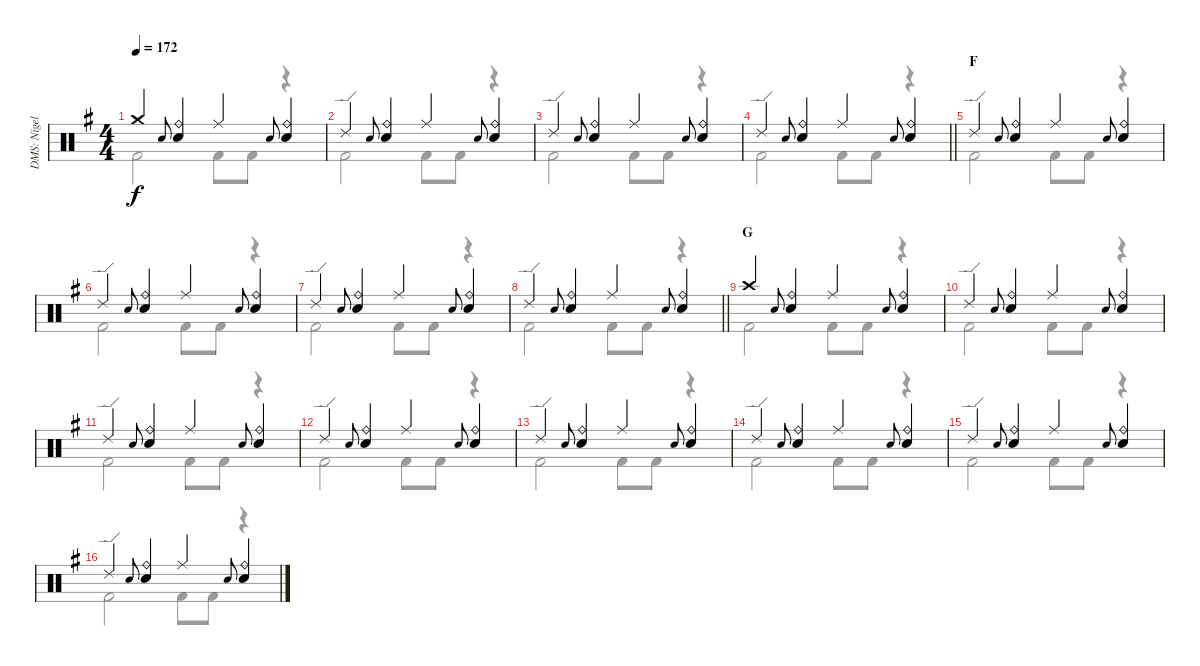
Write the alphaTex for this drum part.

\track ("DMS: Nigel Olsson" "DMS: Nigel") {instrument percussion}
\staff {score}
\articulation defaults
\voice
\ts (4 4)
\tempo 172
\clef neutral
\ks g "Crash medium (hit)".4{dy f} "Snare (hit) 2".8{gr onbeat}
("Ride (bell)" "Electric Snare (hit)").4 "Ride (middle)".4 "Snare (hit) 2".8{gr onbeat} ("Ride (bell)" "Electric Snare (hit)").4 |
"Ride (edge) 2".4 "Snare (hit) 2".8{gr onbeat} ("Ride (bell)" "Electric Snare (hit)").4 "Ride (middle)".4 "Snare (hit) 2".8{gr onbeat} ("Ride (bell)" "Electric Snare (hit)").4 |
"Ride (edge) 2".4 "Snare (hit) 2".8{gr onbeat} ("Ride (bell)" "Electric Snare (hit)").4 "Ride (middle)".4 "Snare (hit) 2".8{gr onbeat} ("Ride (bell)" "Electric Snare (hit)").4 |
\barLineRight lightlight "Ride (edge) 2".4 "Snare (hit) 2".8{gr onbeat}
("Ride (bell)" "Electric Snare (hit)").4 "Ride (middle)".4 "Snare (hit) 2".8{gr onbeat} ("Ride (bell)" "Electric Snare (hit)").4 |
\section ("" "F")
"Ride (edge) 2".4 "Snare (hit) 2".8{gr onbeat} ("Ride (bell)" "Electric Snare (hit)").4 "Ride (middle)".4 "Snare (hit) 2".8{gr onbeat} ("Ride (bell)" "Electric Snare (hit)").4 |
"Ride (edge) 2".4 "Snare (hit) 2".8{gr onbeat} ("Ride (bell)" "Electric Snare (hit)").4 "Ride (middle)".4 "Snare (hit) 2".8{gr onbeat} ("Ride (bell)" "Electric Snare (hit)").4 |
"Ride (edge) 2".4 "Snare (hit) 2".8{gr onbeat} ("Ride (bell)" "Electric Snare (hit)").4 "Ride (middle)".4 "Snare (hit) 2".8{gr onbeat} ("Ride (bell)" "Electric Snare (hit)").4 |
\barLineRight lightlight "Ride (edge) 2".4 "Snare (hit) 2".8{gr onbeat}
("Ride (bell)" "Electric Snare (hit)").4 "Ride (middle)".4 "Snare (hit) 2".8{gr onbeat} ("Ride (bell)" "Electric Snare (hit)").4 |
\section ("" "G")
"Crash high (hit)".4 "Snare (hit) 2".8{gr onbeat} ("Ride (bell)" "Electric Snare (hit)").4 "Ride (middle)".4 "Snare (hit) 2".8{gr onbeat} ("Ride (bell)" "Electric Snare (hit)").4 |
"Ride (edge) 2".4 "Snare (hit) 2".8{gr onbeat} ("Ride (bell)" "Electric Snare (hit)").4 "Ride (middle)".4 "Snare (hit) 2".8{gr onbeat} ("Ride (bell)" "Electric Snare (hit)").4 |
"Ride (edge) 2".4 "Snare (hit) 2".8{gr onbeat} ("Ride (bell)" "Electric Snare (hit)").4 "Ride (middle)".4 "Snare (hit) 2".8{gr onbeat} ("Ride (bell)" "Electric Snare (hit)").4 |
"Ride (edge) 2".4 "Snare (hit) 2".8{gr onbeat} ("Ride (bell)" "Electric Snare (hit)").4 "Ride (middle)".4 "Snare (hit) 2".8{gr onbeat} ("Ride (bell)" "Electric Snare (hit)").4 |
"Ride (edge) 2".4 "Snare (hit) 2".8{gr onbeat} ("Ride (bell)" "Electric Snare (hit)").4 "Ride (middle)".4 "Snare (hit) 2".8{gr onbeat} ("Ride (bell)" "Electric Snare (hit)").4 |
"Ride (edge) 2".4 "Snare (hit) 2".8{gr onbeat} ("Ride (bell)" "Electric Snare (hit)").4 "Ride (middle)".4 "Snare (hit) 2".8{gr onbeat} ("Ride (bell)" "Electric Snare (hit)").4 |
"Ride (edge) 2".4 "Snare (hit) 2".8{gr onbeat} ("Ride (bell)" "Electric Snare (hit)").4 "Ride (middle)".4 "Snare (hit) 2".8{gr onbeat} ("Ride (bell)" "Electric Snare (hit)").4 |
"Ride (edge) 2".4 "Snare (hit) 2".8{gr onbeat} ("Ride (bell)" "Electric Snare (hit)").4 "Ride (middle)".4 "Snare (hit) 2".8{gr onbeat} ("Ride (bell)" "Electric Snare (hit)").4
\voice
\clef neutral
\ottava regular
\simile none
\ks g "Kick (hit) 2".2{dy f} "Kick (hit) 2".8 "Kick (hit) 2".8
r.4 |
"Kick (hit) 2".2 "Kick (hit) 2".8 "Kick (hit) 2".8 r.4 |
"Kick (hit) 2".2 "Kick (hit) 2".8 "Kick (hit) 2".8 r.4 |
\barLineRight lightlight "Kick (hit) 2".2 "Kick (hit) 2".8 "Kick (hit) 2".8
r.4 |
"Kick (hit) 2".2 "Kick (hit) 2".8 "Kick (hit) 2".8 r.4 |
"Kick (hit) 2".2 "Kick (hit) 2".8 "Kick (hit) 2".8 r.4 |
"Kick (hit) 2".2 "Kick (hit) 2".8 "Kick (hit) 2".8 r.4 |
\barLineRight lightlight "Kick (hit) 2".2 "Kick (hit) 2".8 "Kick (hit) 2".8
r.4 |
"Kick (hit) 2".2 "Kick (hit) 2".8 "Kick (hit) 2".8 r.4 |
"Kick (hit) 2".2 "Kick (hit) 2".8 "Kick (hit) 2".8 r.4 |
"Kick (hit) 2".2 "Kick (hit) 2".8 "Kick (hit) 2".8 r.4 |
"Kick (hit) 2".2 "Kick (hit) 2".8 "Kick (hit) 2".8 r.4 |
"Kick (hit) 2".2 "Kick (hit) 2".8 "Kick (hit) 2".8 r.4 |
"Kick (hit) 2".2 "Kick (hit) 2".8 "Kick (hit) 2".8 r.4 |
"Kick (hit) 2".2 "Kick (hit) 2".8 "Kick (hit) 2".8 r.4 |
"Kick (hit) 2".2 "Kick (hit) 2".8 "Kick (hit) 2".8 r.4
